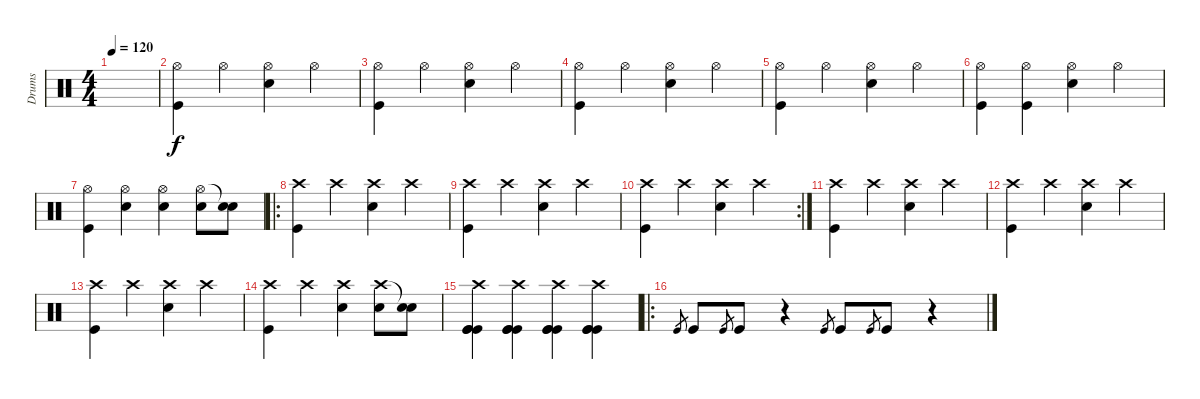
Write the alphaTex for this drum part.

\track ("Drums" "Drums") {instrument percussion}
\staff {score}
\articulation defaults
\ts (4 4)
\tempo 120
\tempo 96
\tempo 120
\clef neutral
\ks c
|
("Hi-Hat (open)" "Kick (hit)").4 "Hi-Hat (open)".4 ("Hi-Hat (open)" "Electric Snare (hit)").4 "Hi-Hat (open)".4 |
("Hi-Hat (open)" "Kick (hit)").4 "Hi-Hat (open)".4 ("Hi-Hat (open)" "Electric Snare (hit)").4 "Hi-Hat (open)".4 |
("Hi-Hat (open)" "Kick (hit)").4 "Hi-Hat (open)".4 ("Hi-Hat (open)" "Electric Snare (hit)").4 "Hi-Hat (open)".4 |
("Hi-Hat (open)" "Kick (hit)").4 "Hi-Hat (open)".4 ("Hi-Hat (open)" "Electric Snare (hit)").4 "Hi-Hat (open)".4 |
("Hi-Hat (open)" "Kick (hit)").4 ("Hi-Hat (open)" "Kick (hit)").4 ("Hi-Hat (open)" "Electric Snare (hit)").4 "Hi-Hat (open)".4 |
("Hi-Hat (open)" "Kick (hit)").4 ("Hi-Hat (open)" "Electric Snare (hit)").4 ("Hi-Hat (open)" "Electric Snare (hit)").4 ("Hi-Hat (open)" "Electric Snare (hit)").8 ("Snare (hit)"{t} "Electric Snare (hit)").8 |
\ro
("Crash high (hit)" "Kick (hit)").4 "Crash high (hit)".4 ("Crash high (hit)" "Electric Snare (hit)").4 "Crash high (hit)".4 |
("Crash high (hit)" "Kick (hit)").4 "Crash high (hit)".4 ("Crash high (hit)" "Electric Snare (hit)").4 "Crash high (hit)".4 |
\rc 2
("Crash high (hit)" "Kick (hit)").4 "Crash high (hit)".4 ("Crash high (hit)" "Electric Snare (hit)").4 "Crash high (hit)".4 |
("Crash high (hit)" "Kick (hit)").4 "Crash high (hit)".4 ("Crash high (hit)" "Electric Snare (hit)").4 "Crash high (hit)".4 |
("Crash high (hit)" "Kick (hit)").4 "Crash high (hit)".4 ("Crash high (hit)" "Electric Snare (hit)").4 "Crash high (hit)".4 |
("Crash high (hit)" "Kick (hit)").4 "Crash high (hit)".4 ("Crash high (hit)" "Electric Snare (hit)").4 "Crash high (hit)".4 |
("Crash high (hit)" "Kick (hit)").4 "Crash high (hit)".4 ("Crash high (hit)" "Electric Snare (hit)").4 ("Crash high (hit)" "Electric Snare (hit)").8 ("Snare (hit)"{t} "Electric Snare (hit)").8 |
("Crash high (hit)" "Kick (hit)" "Kick (hit)" "Kick (hit)").4 ("Crash high (hit)" "Kick (hit)" "Kick (hit)" "Kick (hit)").4 ("Crash high (hit)" "Kick (hit)" "Kick (hit)" "Kick (hit)").4 ("Crash high (hit)" "Kick (hit)" "Kick (hit)" "Kick (hit)").4 |
\ro "Kick (hit)".8{gr} "Kick (hit)".8 "Kick (hit)".8{gr} "Kick (hit)".8
r.4 "Kick (hit)".8{gr} "Kick (hit)".8 "Kick (hit)".8{gr} "Kick (hit)".8 r.4
